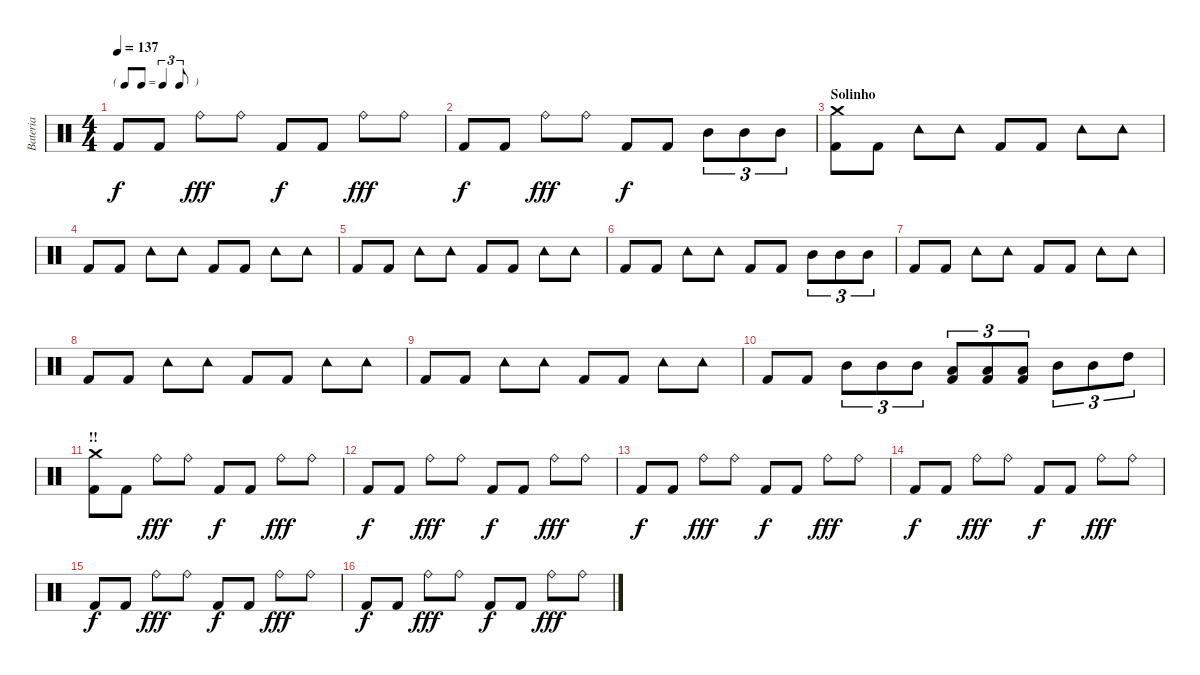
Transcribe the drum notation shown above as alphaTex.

\track ("Bateria" "Bateria") {instrument percussion}
\staff {score}
\articulation defaults
\ts (4 4)
\tf triplet8th
\tempo 137
\clef neutral
\ks c "Kick (hit) 2".8{dy f} "Kick (hit) 2".8 "Ride (bell)".8{dy fff} "Ride (bell)".8 "Kick (hit) 2".8{dy f} "Kick (hit) 2".8 "Ride (bell)".8{dy fff} "Ride (bell)".8
|
"Kick (hit) 2".8{dy f} "Kick (hit) 2".8 "Ride (bell)".8{dy fff} "Ride (bell)".8 "Kick (hit) 2".8{dy f} "Kick (hit) 2".8 "Mid Tom (hit)".8{tu (3 2)} "Mid Tom (hit)".8{tu (3 2)} "Mid Tom (hit)".8{tu (3 2)} |
\section ("" "Solinho")
("Kick (hit) 2" "Crash medium (hit)").8 "Kick (hit) 2".8 "Tambourine (hit)".8 "Tambourine (hit)".8 "Kick (hit) 2".8 "Kick (hit) 2".8 "Tambourine (hit)".8 "Tambourine (hit)".8 |
"Kick (hit) 2".8 "Kick (hit) 2".8 "Tambourine (hit)".8 "Tambourine (hit)".8 "Kick (hit) 2".8 "Kick (hit) 2".8 "Tambourine (hit)".8 "Tambourine (hit)".8 |
"Kick (hit) 2".8 "Kick (hit) 2".8 "Tambourine (hit)".8 "Tambourine (hit)".8 "Kick (hit) 2".8 "Kick (hit) 2".8 "Tambourine (hit)".8 "Tambourine (hit)".8 |
"Kick (hit) 2".8 "Kick (hit) 2".8 "Tambourine (hit)".8 "Tambourine (hit)".8 "Kick (hit) 2".8 "Kick (hit) 2".8 "Mid Tom (hit)".8{tu (3 2)} "Mid Tom (hit)".8{tu (3 2)} "Mid Tom (hit)".8{tu (3 2)} |
"Kick (hit) 2".8 "Kick (hit) 2".8 "Tambourine (hit)".8 "Tambourine (hit)".8 "Kick (hit) 2".8 "Kick (hit) 2".8 "Tambourine (hit)".8 "Tambourine (hit)".8 |
"Kick (hit) 2".8 "Kick (hit) 2".8 "Tambourine (hit)".8 "Tambourine (hit)".8 "Kick (hit) 2".8 "Kick (hit) 2".8 "Tambourine (hit)".8 "Tambourine (hit)".8 |
"Kick (hit) 2".8 "Kick (hit) 2".8 "Tambourine (hit)".8 "Tambourine (hit)".8 "Kick (hit) 2".8 "Kick (hit) 2".8 "Tambourine (hit)".8 "Tambourine (hit)".8 |
"Kick (hit) 2".8 "Kick (hit) 2".8 "Mid Tom (hit)".8{tu (3 2)} "Mid Tom (hit)".8{tu (3 2)} "Mid Tom (hit)".8{tu (3 2)} ("Kick (hit) 2" "Low Tom (hit)").8{tu (3 2)} ("Kick (hit) 2" "Low Tom (hit)").8{tu (3 2)} ("Kick (hit) 2" "Low Tom (hit)").8{tu (3 2)} "Mid Tom (hit)".8{tu (3 2)} "Mid Tom (hit)".8{tu (3 2)} "High Tom (hit)".8{tu (3 2)} |
\section ("" "!!")
("Kick (hit) 2" "Crash medium (hit)").8 "Kick (hit) 2".8 "Ride (bell)".8{dy fff} "Ride (bell)".8 "Kick (hit) 2".8{dy f} "Kick (hit) 2".8 "Ride (bell)".8{dy fff} "Ride (bell)".8 |
"Kick (hit) 2".8{dy f} "Kick (hit) 2".8 "Ride (bell)".8{dy fff} "Ride (bell)".8 "Kick (hit) 2".8{dy f} "Kick (hit) 2".8 "Ride (bell)".8{dy fff} "Ride (bell)".8 |
"Kick (hit) 2".8{dy f} "Kick (hit) 2".8 "Ride (bell)".8{dy fff} "Ride (bell)".8 "Kick (hit) 2".8{dy f} "Kick (hit) 2".8 "Ride (bell)".8{dy fff} "Ride (bell)".8 |
"Kick (hit) 2".8{dy f} "Kick (hit) 2".8 "Ride (bell)".8{dy fff} "Ride (bell)".8 "Kick (hit) 2".8{dy f} "Kick (hit) 2".8 "Ride (bell)".8{dy fff} "Ride (bell)".8 |
"Kick (hit) 2".8{dy f} "Kick (hit) 2".8 "Ride (bell)".8{dy fff} "Ride (bell)".8 "Kick (hit) 2".8{dy f} "Kick (hit) 2".8 "Ride (bell)".8{dy fff} "Ride (bell)".8 |
"Kick (hit) 2".8{dy f} "Kick (hit) 2".8 "Ride (bell)".8{dy fff} "Ride (bell)".8 "Kick (hit) 2".8{dy f} "Kick (hit) 2".8 "Ride (bell)".8{dy fff} "Ride (bell)".8
